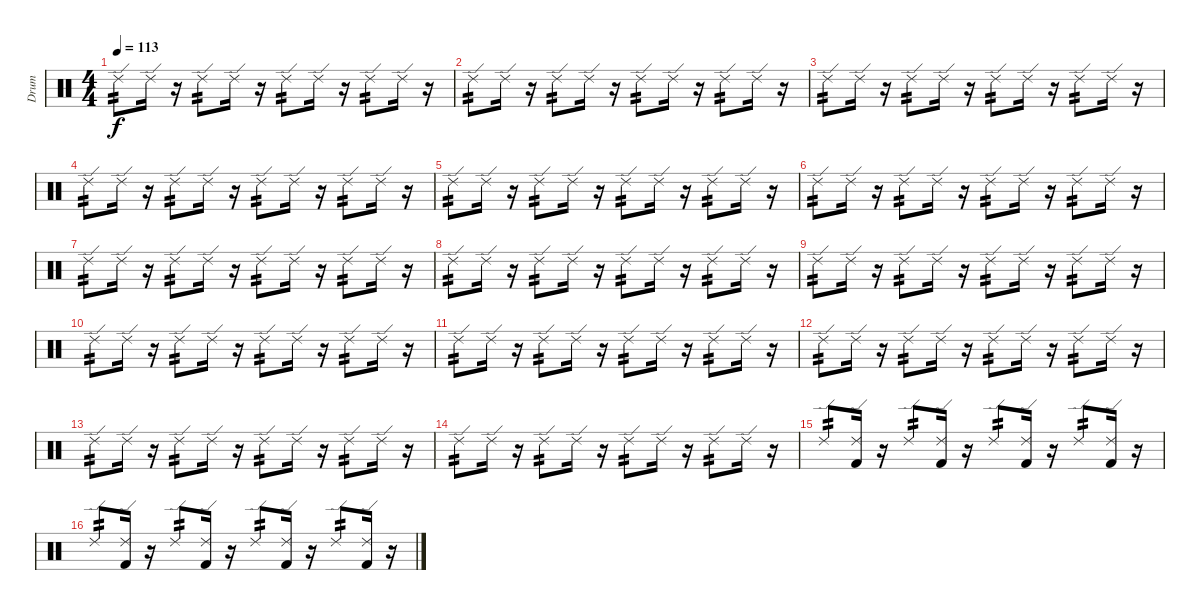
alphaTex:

\track ("Drum" "Drum") {instrument percussion}
\staff {score}
\articulation defaults
\ts (4 4)
\tempo 113
\clef neutral
\ks c "Ride (edge) 2".8{tp 2 dy f} "Ride (edge) 2".16
r.16 "Ride (edge) 2".8{tp 2} "Ride (edge) 2".16 r.16 "Ride (edge) 2".8{tp 2} "Ride (edge) 2".16 r.16 "Ride (edge) 2".8{tp 2} "Ride (edge) 2".16 r.16 |
"Ride (edge) 2".8{tp 2} "Ride (edge) 2".16 r.16 "Ride (edge) 2".8{tp 2} "Ride (edge) 2".16 r.16 "Ride (edge) 2".8{tp 2} "Ride (edge) 2".16 r.16 "Ride (edge) 2".8{tp 2} "Ride (edge) 2".16 r.16 |
"Ride (edge) 2".8{tp 2} "Ride (edge) 2".16 r.16 "Ride (edge) 2".8{tp 2} "Ride (edge) 2".16 r.16 "Ride (edge) 2".8{tp 2} "Ride (edge) 2".16 r.16 "Ride (edge) 2".8{tp 2} "Ride (edge) 2".16 r.16 |
"Ride (edge) 2".8{tp 2} "Ride (edge) 2".16 r.16 "Ride (edge) 2".8{tp 2} "Ride (edge) 2".16 r.16 "Ride (edge) 2".8{tp 2} "Ride (edge) 2".16 r.16 "Ride (edge) 2".8{tp 2} "Ride (edge) 2".16 r.16 |
"Ride (edge) 2".8{tp 2} "Ride (edge) 2".16 r.16 "Ride (edge) 2".8{tp 2} "Ride (edge) 2".16 r.16 "Ride (edge) 2".8{tp 2} "Ride (edge) 2".16 r.16 "Ride (edge) 2".8{tp 2} "Ride (edge) 2".16 r.16 |
"Ride (edge) 2".8{tp 2} "Ride (edge) 2".16 r.16 "Ride (edge) 2".8{tp 2} "Ride (edge) 2".16 r.16 "Ride (edge) 2".8{tp 2} "Ride (edge) 2".16 r.16 "Ride (edge) 2".8{tp 2} "Ride (edge) 2".16 r.16 |
"Ride (edge) 2".8{tp 2} "Ride (edge) 2".16 r.16 "Ride (edge) 2".8{tp 2} "Ride (edge) 2".16 r.16 "Ride (edge) 2".8{tp 2} "Ride (edge) 2".16 r.16 "Ride (edge) 2".8{tp 2} "Ride (edge) 2".16 r.16 |
"Ride (edge) 2".8{tp 2} "Ride (edge) 2".16 r.16 "Ride (edge) 2".8{tp 2} "Ride (edge) 2".16 r.16 "Ride (edge) 2".8{tp 2} "Ride (edge) 2".16 r.16 "Ride (edge) 2".8{tp 2} "Ride (edge) 2".16 r.16 |
"Ride (edge) 2".8{tp 2} "Ride (edge) 2".16 r.16 "Ride (edge) 2".8{tp 2} "Ride (edge) 2".16 r.16 "Ride (edge) 2".8{tp 2} "Ride (edge) 2".16 r.16 "Ride (edge) 2".8{tp 2} "Ride (edge) 2".16 r.16 |
"Ride (edge) 2".8{tp 2} "Ride (edge) 2".16 r.16 "Ride (edge) 2".8{tp 2} "Ride (edge) 2".16 r.16 "Ride (edge) 2".8{tp 2} "Ride (edge) 2".16 r.16 "Ride (edge) 2".8{tp 2} "Ride (edge) 2".16 r.16 |
"Ride (edge) 2".8{tp 2} "Ride (edge) 2".16 r.16 "Ride (edge) 2".8{tp 2} "Ride (edge) 2".16 r.16 "Ride (edge) 2".8{tp 2} "Ride (edge) 2".16 r.16 "Ride (edge) 2".8{tp 2} "Ride (edge) 2".16 r.16 |
"Ride (edge) 2".8{tp 2} "Ride (edge) 2".16 r.16 "Ride (edge) 2".8{tp 2} "Ride (edge) 2".16 r.16 "Ride (edge) 2".8{tp 2} "Ride (edge) 2".16 r.16 "Ride (edge) 2".8{tp 2} "Ride (edge) 2".16 r.16 |
"Ride (edge) 2".8{tp 2} "Ride (edge) 2".16 r.16 "Ride (edge) 2".8{tp 2} "Ride (edge) 2".16 r.16 "Ride (edge) 2".8{tp 2} "Ride (edge) 2".16 r.16 "Ride (edge) 2".8{tp 2} "Ride (edge) 2".16 r.16 |
"Ride (edge) 2".8{tp 2} "Ride (edge) 2".16 r.16 "Ride (edge) 2".8{tp 2} "Ride (edge) 2".16 r.16 "Ride (edge) 2".8{tp 2} "Ride (edge) 2".16 r.16 "Ride (edge) 2".8{tp 2} "Ride (edge) 2".16 r.16 |
"Ride (edge) 2".8{tp 2} ("Ride (edge) 2" "Kick (hit) 2").16 r.16 "Ride (edge) 2".8{tp 2} ("Ride (edge) 2" "Kick (hit) 2").16 r.16 "Ride (edge) 2".8{tp 2} ("Ride (edge) 2" "Kick (hit) 2").16 r.16 "Ride (edge) 2".8{tp 2} ("Ride (edge) 2" "Kick (hit) 2").16 r.16 |
"Ride (edge) 2".8{tp 2} ("Ride (edge) 2" "Kick (hit) 2").16 r.16 "Ride (edge) 2".8{tp 2} ("Ride (edge) 2" "Kick (hit) 2").16 r.16 "Ride (edge) 2".8{tp 2} ("Ride (edge) 2" "Kick (hit) 2").16 r.16 "Ride (edge) 2".8{tp 2} ("Ride (edge) 2" "Kick (hit) 2").16 r.16
